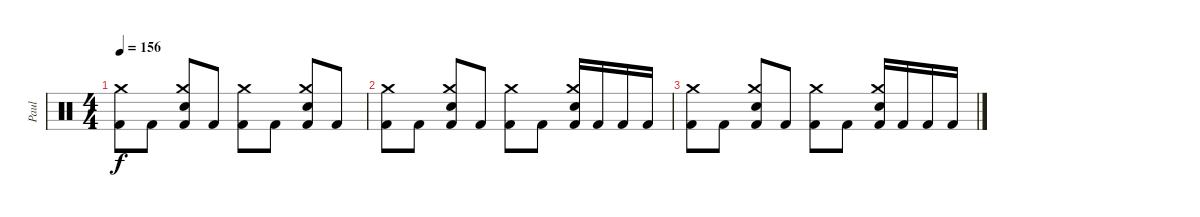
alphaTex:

\track ("Paul" "Paul") {instrument percussion}
\staff {score}
\articulation defaults
\ts (4 4)
\tempo 156
\clef neutral
\ks c
("Kick (hit) 2" "Crash medium (hit)").8{dy f} "Kick (hit) 2".8 ("Kick (hit) 2" "Snare (hit) 2" "Crash medium (hit)").8 "Kick (hit) 2".8 ("Kick (hit) 2" "Crash medium (hit)").8 "Kick (hit) 2".8 ("Kick (hit) 2" "Snare (hit) 2" "Crash medium (hit)").8 "Kick (hit) 2".8 |
("Kick (hit) 2" "Crash medium (hit)").8 "Kick (hit) 2".8 ("Kick (hit) 2" "Snare (hit) 2" "Crash medium (hit)").8 "Kick (hit) 2".8 ("Kick (hit) 2" "Crash medium (hit)").8 "Kick (hit) 2".8 ("Kick (hit) 2" "Snare (hit) 2" "Crash medium (hit)").16 "Kick (hit) 2".16 "Kick (hit) 2".16 "Kick (hit) 2".16 |
("Kick (hit) 2" "Crash medium (hit)").8 "Kick (hit) 2".8 ("Kick (hit) 2" "Snare (hit) 2" "Crash medium (hit)").8 "Kick (hit) 2".8 ("Kick (hit) 2" "Crash medium (hit)").8 "Kick (hit) 2".8 ("Kick (hit) 2" "Snare (hit) 2" "Crash medium (hit)").16 "Kick (hit) 2".16 "Kick (hit) 2".16 "Kick (hit) 2".16
